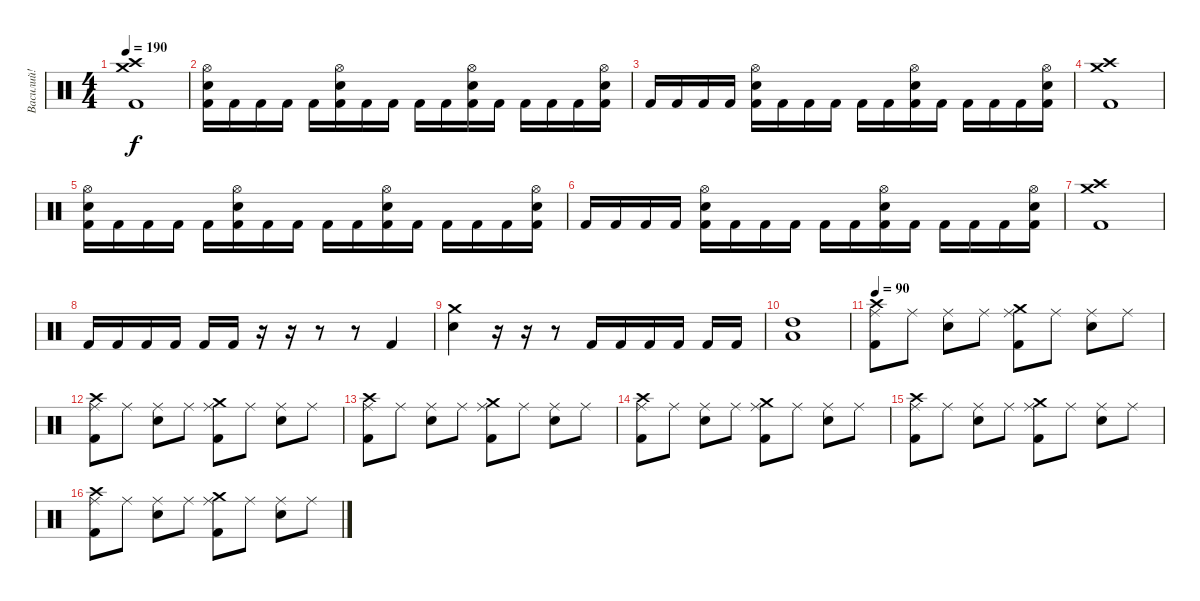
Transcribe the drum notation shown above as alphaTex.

\track ("Василий!" "Василий!") {instrument percussion}
\staff {score}
\articulation defaults
\ts (4 4)
\tempo 190
\clef neutral
\ks c
("Kick (hit) 2" "Crash high (hit)" "Crash medium (hit)").1{dy f} |
("Kick (hit) 2" "Electric Snare (hit)" "Hi-Hat (open)").16 "Kick (hit) 2".16 "Kick (hit) 2".16 "Kick (hit) 2".16 "Kick (hit) 2".16 ("Kick (hit) 2" "Electric Snare (hit)" "Hi-Hat (open)").16 "Kick (hit) 2".16 "Kick (hit) 2".16 "Kick (hit) 2".16 "Kick (hit) 2".16 ("Kick (hit) 2" "Electric Snare (hit)" "Hi-Hat (open)").16 "Kick (hit) 2".16 "Kick (hit) 2".16 "Kick (hit) 2".16 "Kick (hit) 2".16 ("Kick (hit) 2" "Electric Snare (hit)" "Hi-Hat (open)").16 |
"Kick (hit) 2".16 "Kick (hit) 2".16 "Kick (hit) 2".16 "Kick (hit) 2".16 ("Kick (hit) 2" "Electric Snare (hit)" "Hi-Hat (open)").16 "Kick (hit) 2".16 "Kick (hit) 2".16 "Kick (hit) 2".16 "Kick (hit) 2".16 "Kick (hit) 2".16 ("Kick (hit) 2" "Electric Snare (hit)" "Hi-Hat (open)").16 "Kick (hit) 2".16 "Kick (hit) 2".16 "Kick (hit) 2".16 "Kick (hit) 2".16 ("Kick (hit) 2" "Electric Snare (hit)" "Hi-Hat (open)").16 |
("Kick (hit) 2" "Crash high (hit)" "Crash medium (hit)").1 |
("Kick (hit) 2" "Electric Snare (hit)" "Hi-Hat (open)").16 "Kick (hit) 2".16 "Kick (hit) 2".16 "Kick (hit) 2".16 "Kick (hit) 2".16 ("Kick (hit) 2" "Electric Snare (hit)" "Hi-Hat (open)").16 "Kick (hit) 2".16 "Kick (hit) 2".16 "Kick (hit) 2".16 "Kick (hit) 2".16 ("Kick (hit) 2" "Electric Snare (hit)" "Hi-Hat (open)").16 "Kick (hit) 2".16 "Kick (hit) 2".16 "Kick (hit) 2".16 "Kick (hit) 2".16 ("Kick (hit) 2" "Electric Snare (hit)" "Hi-Hat (open)").16 |
"Kick (hit) 2".16 "Kick (hit) 2".16 "Kick (hit) 2".16 "Kick (hit) 2".16 ("Kick (hit) 2" "Electric Snare (hit)" "Hi-Hat (open)").16 "Kick (hit) 2".16 "Kick (hit) 2".16 "Kick (hit) 2".16 "Kick (hit) 2".16 "Kick (hit) 2".16 ("Kick (hit) 2" "Electric Snare (hit)" "Hi-Hat (open)").16 "Kick (hit) 2".16 "Kick (hit) 2".16 "Kick (hit) 2".16 "Kick (hit) 2".16 ("Kick (hit) 2" "Electric Snare (hit)" "Hi-Hat (open)").16 |
("Kick (hit) 2" "Crash high (hit)" "Crash medium (hit)").1 |
"Kick (hit) 2".16 "Kick (hit) 2".16 "Kick (hit) 2".16 "Kick (hit) 2".16 "Kick (hit) 2".16 "Kick (hit) 2".16 r.16 r.16 r.8 r.8 "Kick (hit) 2".4 |
("Electric Snare (hit)" "Crash medium (hit)").4 r.16 r.16 r.8 "Kick (hit) 2".16 "Kick (hit) 2".16 "Kick (hit) 2".16 "Kick (hit) 2".16 "Kick (hit) 2".16 "Kick (hit) 2".16 |
("Low Tom (hit)" "High Tom (hit)").1 |
\tempo 90
("Ride (middle)" "Kick (hit) 2" "Crash high (hit)").8 "Ride (middle)".8 ("Ride (middle)" "Electric Snare (hit)").8 "Ride (middle)".8 ("Ride (middle)" "Kick (hit) 2" "Crash medium (hit)").8 "Ride (middle)".8 ("Ride (middle)" "Electric Snare (hit)").8 "Ride (middle)".8 |
("Ride (middle)" "Kick (hit) 2" "Crash high (hit)").8 "Ride (middle)".8 ("Ride (middle)" "Electric Snare (hit)").8 "Ride (middle)".8 ("Ride (middle)" "Kick (hit) 2" "Crash medium (hit)").8 "Ride (middle)".8 ("Ride (middle)" "Electric Snare (hit)").8 "Ride (middle)".8 |
("Ride (middle)" "Kick (hit) 2" "Crash high (hit)").8 "Ride (middle)".8 ("Ride (middle)" "Electric Snare (hit)").8 "Ride (middle)".8 ("Ride (middle)" "Kick (hit) 2" "Crash medium (hit)").8 "Ride (middle)".8 ("Ride (middle)" "Electric Snare (hit)").8 "Ride (middle)".8 |
("Ride (middle)" "Kick (hit) 2" "Crash high (hit)").8 "Ride (middle)".8 ("Ride (middle)" "Electric Snare (hit)").8 "Ride (middle)".8 ("Ride (middle)" "Kick (hit) 2" "Crash medium (hit)").8 "Ride (middle)".8 ("Ride (middle)" "Electric Snare (hit)").8 "Ride (middle)".8 |
("Ride (middle)" "Kick (hit) 2" "Crash high (hit)").8 "Ride (middle)".8 ("Ride (middle)" "Electric Snare (hit)").8 "Ride (middle)".8 ("Ride (middle)" "Kick (hit) 2" "Crash medium (hit)").8 "Ride (middle)".8 ("Ride (middle)" "Electric Snare (hit)").8 "Ride (middle)".8 |
("Ride (middle)" "Kick (hit) 2" "Crash high (hit)").8 "Ride (middle)".8 ("Ride (middle)" "Electric Snare (hit)").8 "Ride (middle)".8 ("Ride (middle)" "Kick (hit) 2" "Crash medium (hit)").8 "Ride (middle)".8 ("Ride (middle)" "Electric Snare (hit)").8 "Ride (middle)".8
